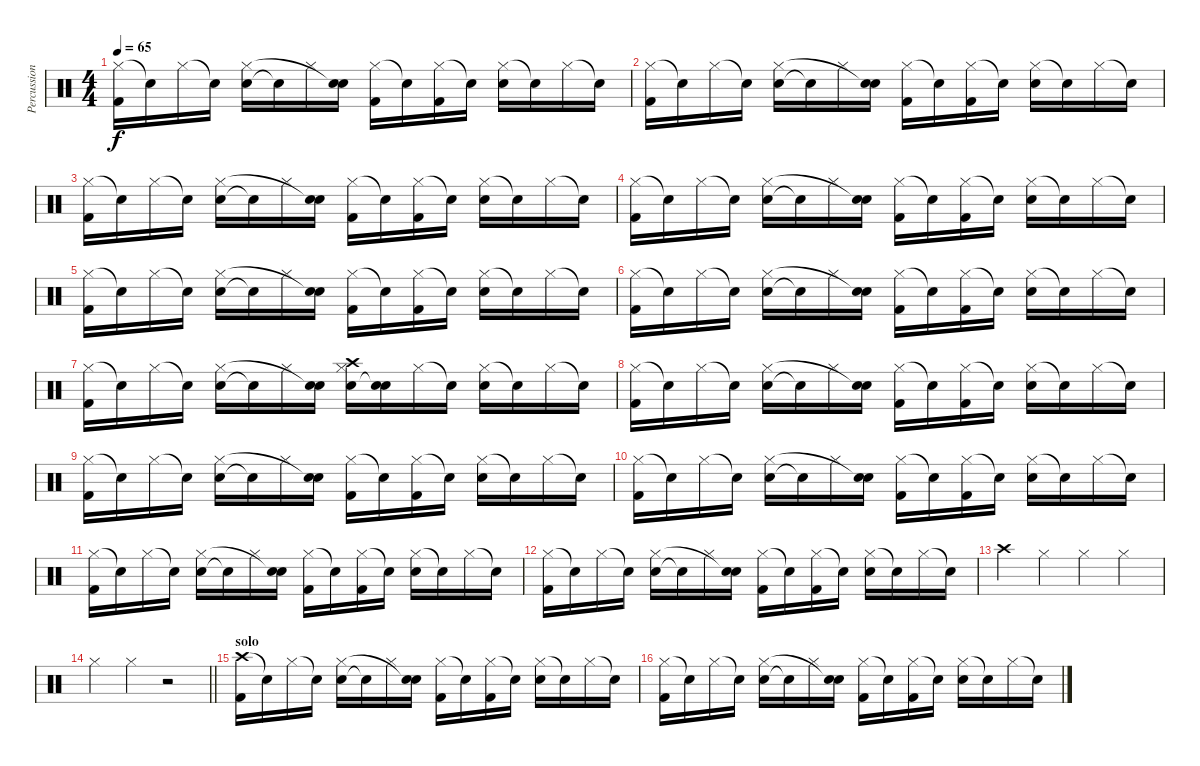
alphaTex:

\track ("Percussion" "Percussion") {instrument percussion}
\staff {score}
\articulation defaults
\ts (4 4)
\tempo 65
\clef neutral
\ks c
("Hi-Hat (closed)" "Kick (hit) 2").16{dy f} "Snare (hit)"{t}.16 "Hi-Hat (closed)".16 "Snare (hit)"{t}.16 ("Electric Snare (hit)" "Hi-Hat (closed)").16 "Snare (hit)"{t}.16 "Hi-Hat (closed)".16 ("Electric Snare (hit)" "Snare (hit)"{t}).16 ("Hi-Hat (closed)" "Kick (hit) 2").16 "Snare (hit)"{t}.16 ("Hi-Hat (closed)" "Kick (hit) 2").16 "Snare (hit)"{t}.16 ("Hi-Hat (closed)" "Electric Snare (hit)").16 "Snare (hit)"{t}.16 "Hi-Hat (closed)".16 "Snare (hit)"{t}.16 |
("Hi-Hat (closed)" "Kick (hit) 2").16 "Snare (hit)"{t}.16 "Hi-Hat (closed)".16 "Snare (hit)"{t}.16 ("Electric Snare (hit)" "Hi-Hat (closed)").16 "Snare (hit)"{t}.16 "Hi-Hat (closed)".16 ("Electric Snare (hit)" "Snare (hit)"{t}).16 ("Hi-Hat (closed)" "Kick (hit) 2").16 "Snare (hit)"{t}.16 ("Hi-Hat (closed)" "Kick (hit) 2").16 "Snare (hit)"{t}.16 ("Hi-Hat (closed)" "Electric Snare (hit)").16 "Snare (hit)"{t}.16 "Hi-Hat (closed)".16 "Snare (hit)"{t}.16 |
("Hi-Hat (closed)" "Kick (hit) 2").16 "Snare (hit)"{t}.16 "Hi-Hat (closed)".16 "Snare (hit)"{t}.16 ("Electric Snare (hit)" "Hi-Hat (closed)").16 "Snare (hit)"{t}.16 "Hi-Hat (closed)".16 ("Electric Snare (hit)" "Snare (hit)"{t}).16 ("Hi-Hat (closed)" "Kick (hit) 2").16 "Snare (hit)"{t}.16 ("Hi-Hat (closed)" "Kick (hit) 2").16 "Snare (hit)"{t}.16 ("Hi-Hat (closed)" "Electric Snare (hit)").16 "Snare (hit)"{t}.16 "Hi-Hat (closed)".16 "Snare (hit)"{t}.16 |
("Hi-Hat (closed)" "Kick (hit) 2").16 "Snare (hit)"{t}.16 "Hi-Hat (closed)".16 "Snare (hit)"{t}.16 ("Electric Snare (hit)" "Hi-Hat (closed)").16 "Snare (hit)"{t}.16 "Hi-Hat (closed)".16 ("Electric Snare (hit)" "Snare (hit)"{t}).16 ("Hi-Hat (closed)" "Kick (hit) 2").16 "Snare (hit)"{t}.16 ("Hi-Hat (closed)" "Kick (hit) 2").16 "Snare (hit)"{t}.16 ("Hi-Hat (closed)" "Electric Snare (hit)").16 "Snare (hit)"{t}.16 "Hi-Hat (closed)".16 "Snare (hit)"{t}.16 |
("Hi-Hat (closed)" "Kick (hit) 2").16 "Snare (hit)"{t}.16 "Hi-Hat (closed)".16 "Snare (hit)"{t}.16 ("Electric Snare (hit)" "Hi-Hat (closed)").16 "Snare (hit)"{t}.16 "Hi-Hat (closed)".16 ("Electric Snare (hit)" "Snare (hit)"{t}).16 ("Hi-Hat (closed)" "Kick (hit) 2").16 "Snare (hit)"{t}.16 ("Hi-Hat (closed)" "Kick (hit) 2").16 "Snare (hit)"{t}.16 ("Hi-Hat (closed)" "Electric Snare (hit)").16 "Snare (hit)"{t}.16 "Hi-Hat (closed)".16 "Snare (hit)"{t}.16 |
("Hi-Hat (closed)" "Kick (hit) 2").16 "Snare (hit)"{t}.16 "Hi-Hat (closed)".16 "Snare (hit)"{t}.16 ("Electric Snare (hit)" "Hi-Hat (closed)").16 "Snare (hit)"{t}.16 "Hi-Hat (closed)".16 ("Electric Snare (hit)" "Snare (hit)"{t}).16 ("Hi-Hat (closed)" "Kick (hit) 2").16 "Snare (hit)"{t}.16 ("Hi-Hat (closed)" "Kick (hit) 2").16 "Snare (hit)"{t}.16 ("Hi-Hat (closed)" "Electric Snare (hit)").16 "Snare (hit)"{t}.16 "Hi-Hat (closed)".16 "Snare (hit)"{t}.16 |
("Hi-Hat (closed)" "Kick (hit) 2").16 "Snare (hit)"{t}.16 "Hi-Hat (closed)".16 "Snare (hit)"{t}.16 ("Electric Snare (hit)" "Hi-Hat (closed)").16 "Snare (hit)"{t}.16 "Hi-Hat (closed)".16 ("Electric Snare (hit)" "Snare (hit)"{t}).16 ("Crash high (hit)" "Electric Snare (hit)" "Hi-Hat (closed)").16 ("Electric Snare (hit)" "Snare (hit)"{t}).16 "Hi-Hat (closed)".16 "Snare (hit)"{t}.16 ("Hi-Hat (closed)" "Electric Snare (hit)").16 "Snare (hit)"{t}.16 "Hi-Hat (closed)".16 "Snare (hit)"{t}.16 |
("Hi-Hat (closed)" "Kick (hit) 2").16 "Snare (hit)"{t}.16 "Hi-Hat (closed)".16 "Snare (hit)"{t}.16 ("Electric Snare (hit)" "Hi-Hat (closed)").16 "Snare (hit)"{t}.16 "Hi-Hat (closed)".16 ("Electric Snare (hit)" "Snare (hit)"{t}).16 ("Hi-Hat (closed)" "Kick (hit) 2").16 "Snare (hit)"{t}.16 ("Hi-Hat (closed)" "Kick (hit) 2").16 "Snare (hit)"{t}.16 ("Hi-Hat (closed)" "Electric Snare (hit)").16 "Snare (hit)"{t}.16 "Hi-Hat (closed)".16 "Snare (hit)"{t}.16 |
("Hi-Hat (closed)" "Kick (hit) 2").16 "Snare (hit)"{t}.16 "Hi-Hat (closed)".16 "Snare (hit)"{t}.16 ("Electric Snare (hit)" "Hi-Hat (closed)").16 "Snare (hit)"{t}.16 "Hi-Hat (closed)".16 ("Electric Snare (hit)" "Snare (hit)"{t}).16 ("Hi-Hat (closed)" "Kick (hit) 2").16 "Snare (hit)"{t}.16 ("Hi-Hat (closed)" "Kick (hit) 2").16 "Snare (hit)"{t}.16 ("Hi-Hat (closed)" "Electric Snare (hit)").16 "Snare (hit)"{t}.16 "Hi-Hat (closed)".16 "Snare (hit)"{t}.16 |
("Hi-Hat (closed)" "Kick (hit) 2").16 "Snare (hit)"{t}.16 "Hi-Hat (closed)".16 "Snare (hit)"{t}.16 ("Electric Snare (hit)" "Hi-Hat (closed)").16 "Snare (hit)"{t}.16 "Hi-Hat (closed)".16 ("Electric Snare (hit)" "Snare (hit)"{t}).16 ("Hi-Hat (closed)" "Kick (hit) 2").16 "Snare (hit)"{t}.16 ("Hi-Hat (closed)" "Kick (hit) 2").16 "Snare (hit)"{t}.16 ("Hi-Hat (closed)" "Electric Snare (hit)").16 "Snare (hit)"{t}.16 "Hi-Hat (closed)".16 "Snare (hit)"{t}.16 |
("Hi-Hat (closed)" "Kick (hit) 2").16 "Snare (hit)"{t}.16 "Hi-Hat (closed)".16 "Snare (hit)"{t}.16 ("Electric Snare (hit)" "Hi-Hat (closed)").16 "Snare (hit)"{t}.16 "Hi-Hat (closed)".16 ("Electric Snare (hit)" "Snare (hit)"{t}).16 ("Hi-Hat (closed)" "Kick (hit) 2").16 "Snare (hit)"{t}.16 ("Hi-Hat (closed)" "Kick (hit) 2").16 "Snare (hit)"{t}.16 ("Hi-Hat (closed)" "Electric Snare (hit)").16 "Snare (hit)"{t}.16 "Hi-Hat (closed)".16 "Snare (hit)"{t}.16 |
("Hi-Hat (closed)" "Kick (hit) 2").16 "Snare (hit)"{t}.16 "Hi-Hat (closed)".16 "Snare (hit)"{t}.16 ("Electric Snare (hit)" "Hi-Hat (closed)").16 "Snare (hit)"{t}.16 "Hi-Hat (closed)".16 ("Electric Snare (hit)" "Snare (hit)"{t}).16 ("Hi-Hat (closed)" "Kick (hit) 2").16 "Snare (hit)"{t}.16 ("Hi-Hat (closed)" "Kick (hit) 2").16 "Snare (hit)"{t}.16 ("Hi-Hat (closed)" "Electric Snare (hit)").16 "Snare (hit)"{t}.16 "Hi-Hat (closed)".16 "Snare (hit)"{t}.16 |
"Crash high (hit)".4 "Hi-Hat (closed)".4 "Hi-Hat (closed)".4 "Hi-Hat (closed)".4 |
\barLineRight lightlight "Hi-Hat (closed)".4 "Hi-Hat (closed)".4
r.2 |
\section ("" "solo")
("Crash high (hit)" "Kick (hit) 2").16 "Snare (hit)"{t}.16 "Hi-Hat (closed)".16 "Snare (hit)"{t}.16 ("Electric Snare (hit)" "Hi-Hat (closed)").16 "Snare (hit)"{t}.16 "Hi-Hat (closed)".16 ("Electric Snare (hit)" "Snare (hit)"{t}).16 ("Hi-Hat (closed)" "Kick (hit) 2").16 "Snare (hit)"{t}.16 ("Hi-Hat (closed)" "Kick (hit) 2").16 "Snare (hit)"{t}.16 ("Hi-Hat (closed)" "Electric Snare (hit)").16 "Snare (hit)"{t}.16 "Hi-Hat (closed)".16 "Snare (hit)"{t}.16 |
("Hi-Hat (closed)" "Kick (hit) 2").16 "Snare (hit)"{t}.16 "Hi-Hat (closed)".16 "Snare (hit)"{t}.16 ("Electric Snare (hit)" "Hi-Hat (closed)").16 "Snare (hit)"{t}.16 "Hi-Hat (closed)".16 ("Electric Snare (hit)" "Snare (hit)"{t}).16 ("Hi-Hat (closed)" "Kick (hit) 2").16 "Snare (hit)"{t}.16 ("Hi-Hat (closed)" "Kick (hit) 2").16 "Snare (hit)"{t}.16 ("Hi-Hat (closed)" "Electric Snare (hit)").16 "Snare (hit)"{t}.16 "Hi-Hat (closed)".16 "Snare (hit)"{t}.16
